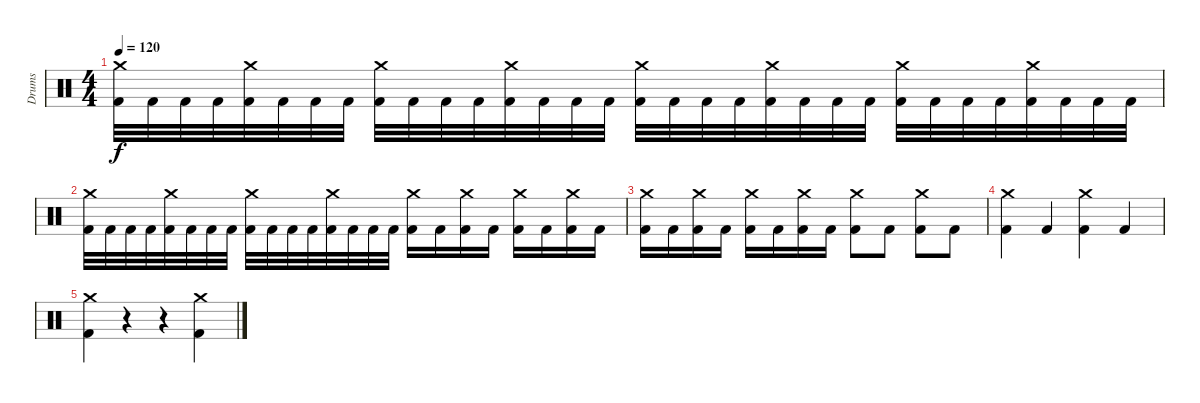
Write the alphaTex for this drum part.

\track ("Drums" "Drums") {instrument percussion}
\staff {score}
\articulation defaults
\ts (4 4)
\tempo 120
\clef neutral
\ks c
("Kick (hit) 2" "Crash medium (hit)").32{dy f} "Kick (hit) 2".32 "Kick (hit) 2".32 "Kick (hit) 2".32 ("Kick (hit) 2" "Crash medium (hit)").32 "Kick (hit) 2".32 "Kick (hit) 2".32 "Kick (hit) 2".32 ("Kick (hit) 2" "Crash medium (hit)").32 "Kick (hit) 2".32 "Kick (hit) 2".32 "Kick (hit) 2".32 ("Kick (hit) 2" "Crash medium (hit)").32 "Kick (hit) 2".32 "Kick (hit) 2".32 "Kick (hit) 2".32 ("Kick (hit) 2" "Crash medium (hit)").32 "Kick (hit) 2".32 "Kick (hit) 2".32 "Kick (hit) 2".32 ("Kick (hit) 2" "Crash medium (hit)").32 "Kick (hit) 2".32 "Kick (hit) 2".32 "Kick (hit) 2".32 ("Kick (hit) 2" "Crash medium (hit)").32 "Kick (hit) 2".32 "Kick (hit) 2".32 "Kick (hit) 2".32 ("Kick (hit) 2" "Crash medium (hit)").32 "Kick (hit) 2".32 "Kick (hit) 2".32 "Kick (hit) 2".32 |
("Kick (hit) 2" "Crash medium (hit)").32 "Kick (hit) 2".32 "Kick (hit) 2".32 "Kick (hit) 2".32 ("Kick (hit) 2" "Crash medium (hit)").32 "Kick (hit) 2".32 "Kick (hit) 2".32 "Kick (hit) 2".32 ("Kick (hit) 2" "Crash medium (hit)").32 "Kick (hit) 2".32 "Kick (hit) 2".32 "Kick (hit) 2".32 ("Kick (hit) 2" "Crash medium (hit)").32 "Kick (hit) 2".32 "Kick (hit) 2".32 "Kick (hit) 2".32 ("Kick (hit) 2" "Crash medium (hit)").16 "Kick (hit) 2".16 ("Kick (hit) 2" "Crash medium (hit)").16 "Kick (hit) 2".16 ("Kick (hit) 2" "Crash medium (hit)").16 "Kick (hit) 2".16 ("Kick (hit) 2" "Crash medium (hit)").16 "Kick (hit) 2".16 |
("Kick (hit) 2" "Crash medium (hit)").16 "Kick (hit) 2".16 ("Kick (hit) 2" "Crash medium (hit)").16 "Kick (hit) 2".16 ("Kick (hit) 2" "Crash medium (hit)").16 "Kick (hit) 2".16 ("Kick (hit) 2" "Crash medium (hit)").16 "Kick (hit) 2".16 ("Kick (hit) 2" "Crash medium (hit)").8 "Kick (hit) 2".8 ("Kick (hit) 2" "Crash medium (hit)").8 "Kick (hit) 2".8 |
("Kick (hit) 2" "Crash medium (hit)").4 "Kick (hit) 2".4 ("Kick (hit) 2" "Crash medium (hit)").4 "Kick (hit) 2".4 |
("Kick (hit) 2" "Crash medium (hit)").4 r.4 r.4 ("Kick (hit) 2" "Crash medium (hit)").4
